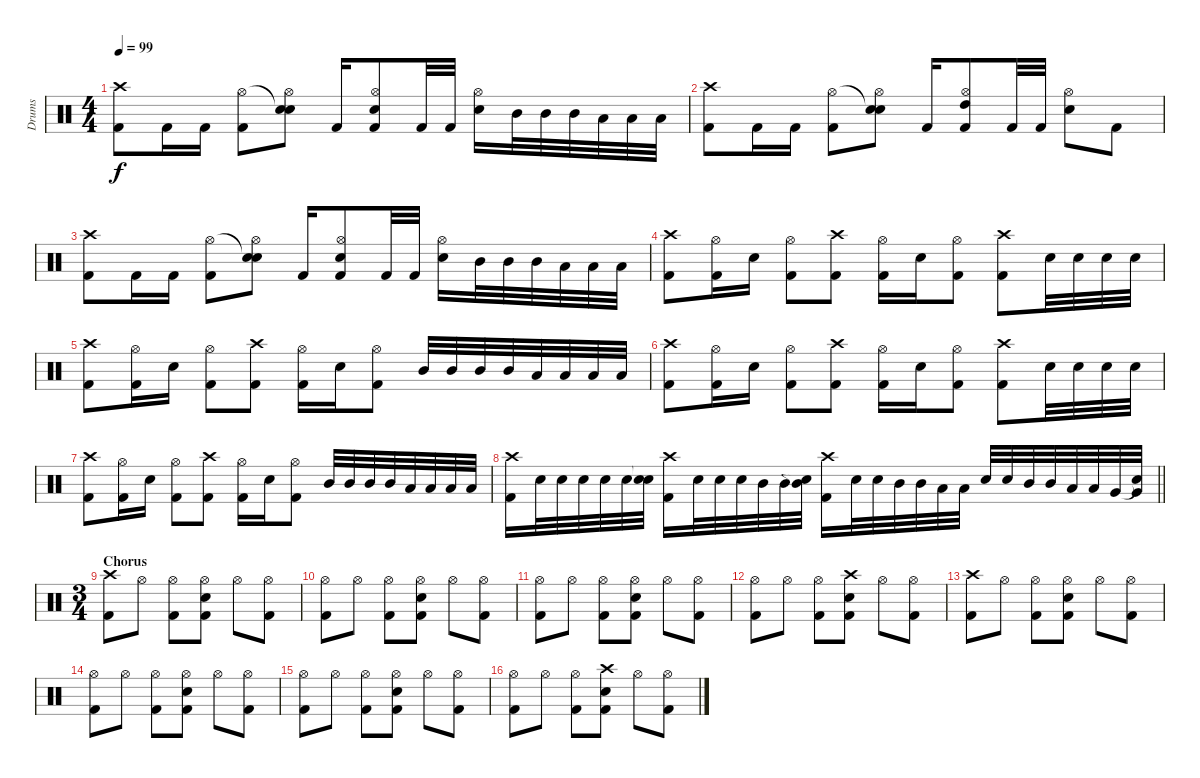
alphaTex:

\track ("Drums" "Drums") {instrument percussion}
\staff {score}
\articulation defaults
\ts (4 4)
\tempo 99
\clef neutral
\ks c
("Crash high (hit)" "Kick (hit) 2").8{dy f} "Kick (hit) 2".16 "Kick (hit) 2".16 ("Hi-Hat (open)" "Kick (hit) 2").8 ("Snare (hit)"{t} "Hi-Hat (open)" "Snare (hit) 2").8 "Kick (hit) 2".16 ("Hi-Hat (open)" "Snare (hit) 2" "Kick (hit) 2").8 "Kick (hit) 2".32 "Kick (hit) 2".32 ("Hi-Hat (open)" "Snare (hit) 2").16 "Mid Tom (hit)".32 "Mid Tom (hit)".32 "Mid Tom (hit)".32 "Low Tom (hit)".32 "Low Tom (hit)".32 "Low Tom (hit)".32 |
("Crash high (hit)" "Kick (hit) 2").8 "Kick (hit) 2".16 "Kick (hit) 2".16 ("Hi-Hat (open)" "Kick (hit) 2").8 ("Snare (hit)"{t} "Hi-Hat (open)" "Snare (hit) 2").8 "Kick (hit) 2".16 ("Hi-Hat (open)" "High Tom (hit)" "Kick (hit) 2").8 "Kick (hit) 2".32 "Kick (hit) 2".32 ("Hi-Hat (open)" "Snare (hit) 2").8 "Kick (hit) 2".8 |
("Crash high (hit)" "Kick (hit) 2").8 "Kick (hit) 2".16 "Kick (hit) 2".16 ("Hi-Hat (open)" "Kick (hit) 2").8 ("Snare (hit)"{t} "Hi-Hat (open)" "Snare (hit) 2").8 "Kick (hit) 2".16 ("Hi-Hat (open)" "Snare (hit) 2" "Kick (hit) 2").8 "Kick (hit) 2".32 "Kick (hit) 2".32 ("Hi-Hat (open)" "Snare (hit) 2").16 "Mid Tom (hit)".32 "Mid Tom (hit)".32 "Mid Tom (hit)".32 "Low Tom (hit)".32 "Low Tom (hit)".32 "Low Tom (hit)".32 |
("Crash high (hit)" "Kick (hit) 2").8 ("Hi-Hat (open)" "Kick (hit) 2").16 "Snare (hit) 2".16 ("Hi-Hat (open)" "Kick (hit) 2").8 ("Crash high (hit)" "Kick (hit) 2").8 ("Hi-Hat (open)" "Kick (hit) 2").16 "Snare (hit) 2".16 ("Hi-Hat (open)" "Kick (hit) 2").8 ("Crash high (hit)" "Kick (hit) 2").8 "Snare (hit) 2".32 "Snare (hit) 2".32 "Snare (hit) 2".32 "Snare (hit) 2".32 |
("Crash high (hit)" "Kick (hit) 2").8 ("Hi-Hat (open)" "Kick (hit) 2").16 "Snare (hit) 2".16 ("Hi-Hat (open)" "Kick (hit) 2").8 ("Crash high (hit)" "Kick (hit) 2").8 ("Hi-Hat (open)" "Kick (hit) 2").16 "Snare (hit) 2".16 ("Hi-Hat (open)" "Kick (hit) 2").8 "Mid Tom (hit)".32 "Mid Tom (hit)".32 "Mid Tom (hit)".32 "Mid Tom (hit)".32 "Low Tom (hit)".32 "Low Tom (hit)".32 "Low Tom (hit)".32 "Low Tom (hit)".32 |
("Crash high (hit)" "Kick (hit) 2").8 ("Hi-Hat (open)" "Kick (hit) 2").16 "Snare (hit) 2".16 ("Hi-Hat (open)" "Kick (hit) 2").8 ("Crash high (hit)" "Kick (hit) 2").8 ("Hi-Hat (open)" "Kick (hit) 2").16 "Snare (hit) 2".16 ("Hi-Hat (open)" "Kick (hit) 2").8 ("Crash high (hit)" "Kick (hit) 2").8 "Snare (hit) 2".32 "Snare (hit) 2".32 "Snare (hit) 2".32 "Snare (hit) 2".32 |
("Crash high (hit)" "Kick (hit) 2").8 ("Hi-Hat (open)" "Kick (hit) 2").16 "Snare (hit) 2".16 ("Hi-Hat (open)" "Kick (hit) 2").8 ("Crash high (hit)" "Kick (hit) 2").8 ("Hi-Hat (open)" "Kick (hit) 2").16 "Snare (hit) 2".16 ("Hi-Hat (open)" "Kick (hit) 2").8 "Mid Tom (hit)".32 "Mid Tom (hit)".32 "Mid Tom (hit)".32 "Mid Tom (hit)".32 "Low Tom (hit)".32 "Low Tom (hit)".32 "Low Tom (hit)".32 "Low Tom (hit)".32 |
\barLineRight lightlight
("Crash high (hit)" "Kick (hit) 2").16 "Snare (hit) 2".32 "Snare (hit) 2".32 "Snare (hit) 2".32 "Snare (hit) 2".32 "Snare (hit) 2".32 ("Snare (hit)"{t} "Snare (hit) 2").32 ("Crash high (hit)" "Kick (hit) 2").16 "Snare (hit) 2".32 "Snare (hit) 2".32 "Snare (hit) 2".32 "Mid Tom (hit)".32 "Mid Tom (hit)".32 ("Snare (hit)"{t} "Mid Tom (hit)").32 ("Crash high (hit)" "Kick (hit) 2").16 "Snare (hit) 2".32 "Snare (hit) 2".32 "Mid Tom (hit)".32 "Mid Tom (hit)".32 "Low Tom (hit)".32 "Low Tom (hit)".32 "Snare (hit) 2".32 "Snare (hit) 2".32 "Mid Tom (hit)".32 "Mid Tom (hit)".32 "Low Tom (hit)".32 "Low Tom (hit)".32 "Very Low Tom (hit)".32 ("Snare (hit)"{t} "Very Low Tom (hit)").32 |
\ts (3 4)
\section ("" "Chorus ")
("Crash high (hit)" "Kick (hit) 2").8 "Hi-Hat (open)".8 ("Hi-Hat (open)" "Kick (hit) 2").8 ("Hi-Hat (open)" "Snare (hit) 2" "Kick (hit) 2").8 "Hi-Hat (open)".8 ("Hi-Hat (open)" "Kick (hit) 2").8 |
("Hi-Hat (open)" "Kick (hit) 2").8 "Hi-Hat (open)".8 ("Hi-Hat (open)" "Kick (hit) 2").8 ("Hi-Hat (open)" "Snare (hit) 2" "Kick (hit) 2").8 "Hi-Hat (open)".8 ("Hi-Hat (open)" "Kick (hit) 2").8 |
("Hi-Hat (open)" "Kick (hit) 2").8 "Hi-Hat (open)".8 ("Hi-Hat (open)" "Kick (hit) 2").8 ("Hi-Hat (open)" "Snare (hit) 2" "Kick (hit) 2").8 "Hi-Hat (open)".8 ("Hi-Hat (open)" "Kick (hit) 2").8 |
("Hi-Hat (open)" "Kick (hit) 2").8 "Hi-Hat (open)".8 ("Hi-Hat (open)" "Kick (hit) 2").8 ("Crash high (hit)" "Snare (hit) 2" "Kick (hit) 2").8 "Hi-Hat (open)".8 ("Hi-Hat (open)" "Kick (hit) 2").8 |
("Crash high (hit)" "Kick (hit) 2").8 "Hi-Hat (open)".8 ("Hi-Hat (open)" "Kick (hit) 2").8 ("Hi-Hat (open)" "Snare (hit) 2" "Kick (hit) 2").8 "Hi-Hat (open)".8 ("Hi-Hat (open)" "Kick (hit) 2").8 |
("Hi-Hat (open)" "Kick (hit) 2").8 "Hi-Hat (open)".8 ("Hi-Hat (open)" "Kick (hit) 2").8 ("Hi-Hat (open)" "Snare (hit) 2" "Kick (hit) 2").8 "Hi-Hat (open)".8 ("Hi-Hat (open)" "Kick (hit) 2").8 |
("Hi-Hat (open)" "Kick (hit) 2").8 "Hi-Hat (open)".8 ("Hi-Hat (open)" "Kick (hit) 2").8 ("Hi-Hat (open)" "Snare (hit) 2" "Kick (hit) 2").8 "Hi-Hat (open)".8 ("Hi-Hat (open)" "Kick (hit) 2").8 |
("Hi-Hat (open)" "Kick (hit) 2").8 "Hi-Hat (open)".8 ("Hi-Hat (open)" "Kick (hit) 2").8 ("Crash high (hit)" "Snare (hit) 2" "Kick (hit) 2").8 "Hi-Hat (open)".8 ("Hi-Hat (open)" "Kick (hit) 2").8
